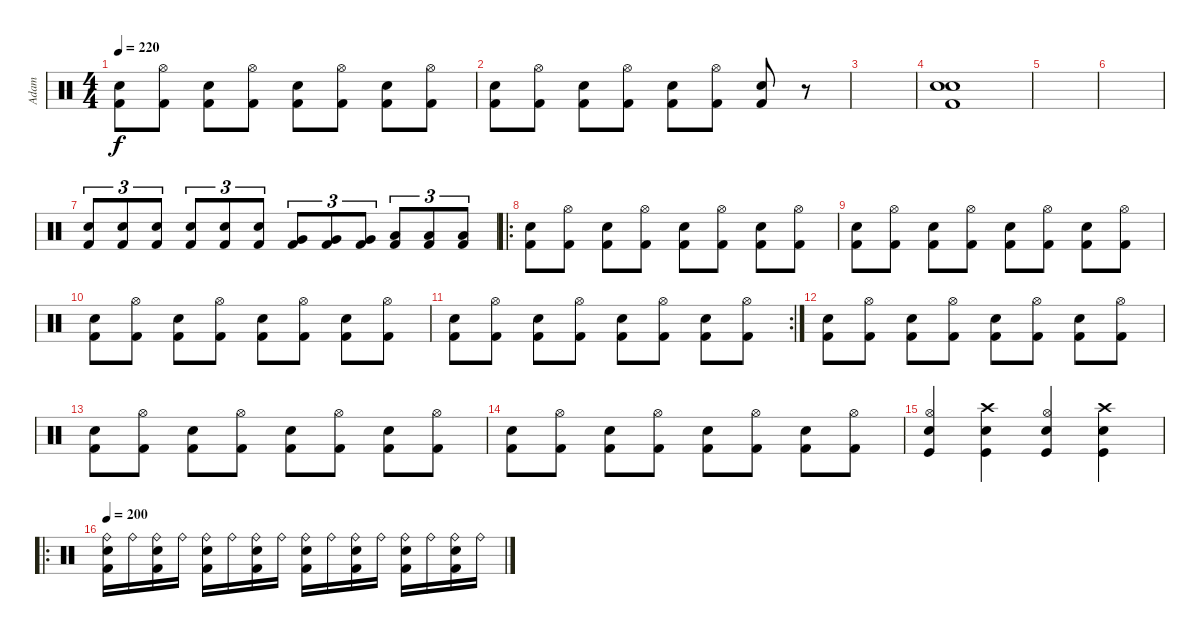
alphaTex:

\track ("Adam" "Adam") {instrument percussion}
\staff {score}
\articulation defaults
\ts (4 4)
\tempo 220
\clef neutral
\ks c
("Snare (hit) 2" "Kick (hit) 2").8{dy f} ("Hi-Hat (open)" "Kick (hit) 2").8 ("Snare (hit) 2" "Kick (hit) 2").8 ("Hi-Hat (open)" "Kick (hit) 2").8 ("Snare (hit) 2" "Kick (hit) 2").8 ("Hi-Hat (open)" "Kick (hit) 2").8 ("Snare (hit) 2" "Kick (hit) 2").8 ("Hi-Hat (open)" "Kick (hit) 2").8 |
("Snare (hit) 2" "Kick (hit) 2").8 ("Hi-Hat (open)" "Kick (hit) 2").8 ("Snare (hit) 2" "Kick (hit) 2").8 ("Hi-Hat (open)" "Kick (hit) 2").8 ("Snare (hit) 2" "Kick (hit) 2").8 ("Hi-Hat (open)" "Kick (hit) 2").8 ("Snare (hit) 2" "Kick (hit) 2").8 r.8 |
|
("Electric Snare (hit)" "Snare (hit) 2" "Kick (hit) 2").1 |
|
|
("Electric Snare (hit)" "Kick (hit) 2").8{tu (3 2)} ("Electric Snare (hit)" "Kick (hit) 2").8{tu (3 2)} ("Electric Snare (hit)" "Kick (hit) 2").8{tu (3 2)} ("Snare (hit) 2" "Kick (hit) 2").8{tu (3 2)} ("Snare (hit) 2" "Kick (hit) 2").8{tu (3 2)} ("Snare (hit) 2" "Kick (hit) 2").8{tu (3 2)} ("Very Low Tom (hit)" "Kick (hit) 2").8{tu (3 2)} ("Very Low Tom (hit)" "Kick (hit) 2").8{tu (3 2)} ("Very Low Tom (hit)" "Kick (hit) 2").8{tu (3 2)} ("Low Floor Tom (hit)" "Kick (hit) 2").8{tu (3 2)} ("Low Floor Tom (hit)" "Kick (hit) 2").8{tu (3 2)} ("Low Floor Tom (hit)" "Kick (hit) 2").8{tu (3 2)} |
\ro
("Snare (hit) 2" "Kick (hit) 2").8 ("Hi-Hat (open)" "Kick (hit) 2").8 ("Snare (hit) 2" "Kick (hit) 2").8 ("Hi-Hat (open)" "Kick (hit) 2").8 ("Snare (hit) 2" "Kick (hit) 2").8 ("Hi-Hat (open)" "Kick (hit) 2").8 ("Snare (hit) 2" "Kick (hit) 2").8 ("Hi-Hat (open)" "Kick (hit) 2").8 |
("Snare (hit) 2" "Kick (hit) 2").8 ("Hi-Hat (open)" "Kick (hit) 2").8 ("Snare (hit) 2" "Kick (hit) 2").8 ("Hi-Hat (open)" "Kick (hit) 2").8 ("Snare (hit) 2" "Kick (hit) 2").8 ("Hi-Hat (open)" "Kick (hit) 2").8 ("Snare (hit) 2" "Kick (hit) 2").8 ("Hi-Hat (open)" "Kick (hit) 2").8 |
("Snare (hit) 2" "Kick (hit) 2").8 ("Hi-Hat (open)" "Kick (hit) 2").8 ("Snare (hit) 2" "Kick (hit) 2").8 ("Hi-Hat (open)" "Kick (hit) 2").8 ("Snare (hit) 2" "Kick (hit) 2").8 ("Hi-Hat (open)" "Kick (hit) 2").8 ("Snare (hit) 2" "Kick (hit) 2").8 ("Hi-Hat (open)" "Kick (hit) 2").8 |
\rc 2
("Snare (hit) 2" "Kick (hit) 2").8 ("Hi-Hat (open)" "Kick (hit) 2").8 ("Snare (hit) 2" "Kick (hit) 2").8 ("Hi-Hat (open)" "Kick (hit) 2").8 ("Snare (hit) 2" "Kick (hit) 2").8 ("Hi-Hat (open)" "Kick (hit) 2").8 ("Snare (hit) 2" "Kick (hit) 2").8 ("Hi-Hat (open)" "Kick (hit) 2").8 |
("Snare (hit) 2" "Kick (hit) 2").8 ("Hi-Hat (open)" "Kick (hit) 2").8 ("Snare (hit) 2" "Kick (hit) 2").8 ("Hi-Hat (open)" "Kick (hit) 2").8 ("Snare (hit) 2" "Kick (hit) 2").8 ("Hi-Hat (open)" "Kick (hit) 2").8 ("Snare (hit) 2" "Kick (hit) 2").8 ("Hi-Hat (open)" "Kick (hit) 2").8 |
("Snare (hit) 2" "Kick (hit) 2").8 ("Hi-Hat (open)" "Kick (hit) 2").8 ("Snare (hit) 2" "Kick (hit) 2").8 ("Hi-Hat (open)" "Kick (hit) 2").8 ("Snare (hit) 2" "Kick (hit) 2").8 ("Hi-Hat (open)" "Kick (hit) 2").8 ("Snare (hit) 2" "Kick (hit) 2").8 ("Hi-Hat (open)" "Kick (hit) 2").8 |
("Snare (hit) 2" "Kick (hit) 2").8 ("Hi-Hat (open)" "Kick (hit) 2").8 ("Snare (hit) 2" "Kick (hit) 2").8 ("Hi-Hat (open)" "Kick (hit) 2").8 ("Snare (hit) 2" "Kick (hit) 2").8 ("Hi-Hat (open)" "Kick (hit) 2").8 ("Snare (hit) 2" "Kick (hit) 2").8 ("Hi-Hat (open)" "Kick (hit) 2").8 |
("Hi-Hat (open)" "Kick (hit)" "Snare (hit) 2").4 ("Crash high (hit)" "Kick (hit)" "Snare (hit) 2").4 ("Hi-Hat (open)" "Kick (hit)" "Snare (hit) 2").4 ("Crash high (hit)" "Kick (hit)" "Snare (hit) 2").4 |
\ro
\tempo 200
("Ride (bell)" "Electric Snare (hit)" "Kick (hit) 2").16 "Ride (bell)".16 ("Ride (bell)" "Electric Snare (hit)" "Kick (hit) 2").16 "Ride (bell)".16 ("Ride (bell)" "Electric Snare (hit)" "Kick (hit) 2").16 "Ride (bell)".16 ("Ride (bell)" "Electric Snare (hit)" "Kick (hit) 2").16 "Ride (bell)".16 ("Ride (bell)" "Electric Snare (hit)" "Kick (hit) 2").16 "Ride (bell)".16 ("Ride (bell)" "Electric Snare (hit)" "Kick (hit) 2").16 "Ride (bell)".16 ("Ride (bell)" "Electric Snare (hit)" "Kick (hit) 2").16 "Ride (bell)".16 ("Ride (bell)" "Electric Snare (hit)" "Kick (hit) 2").16 "Ride (bell)".16
